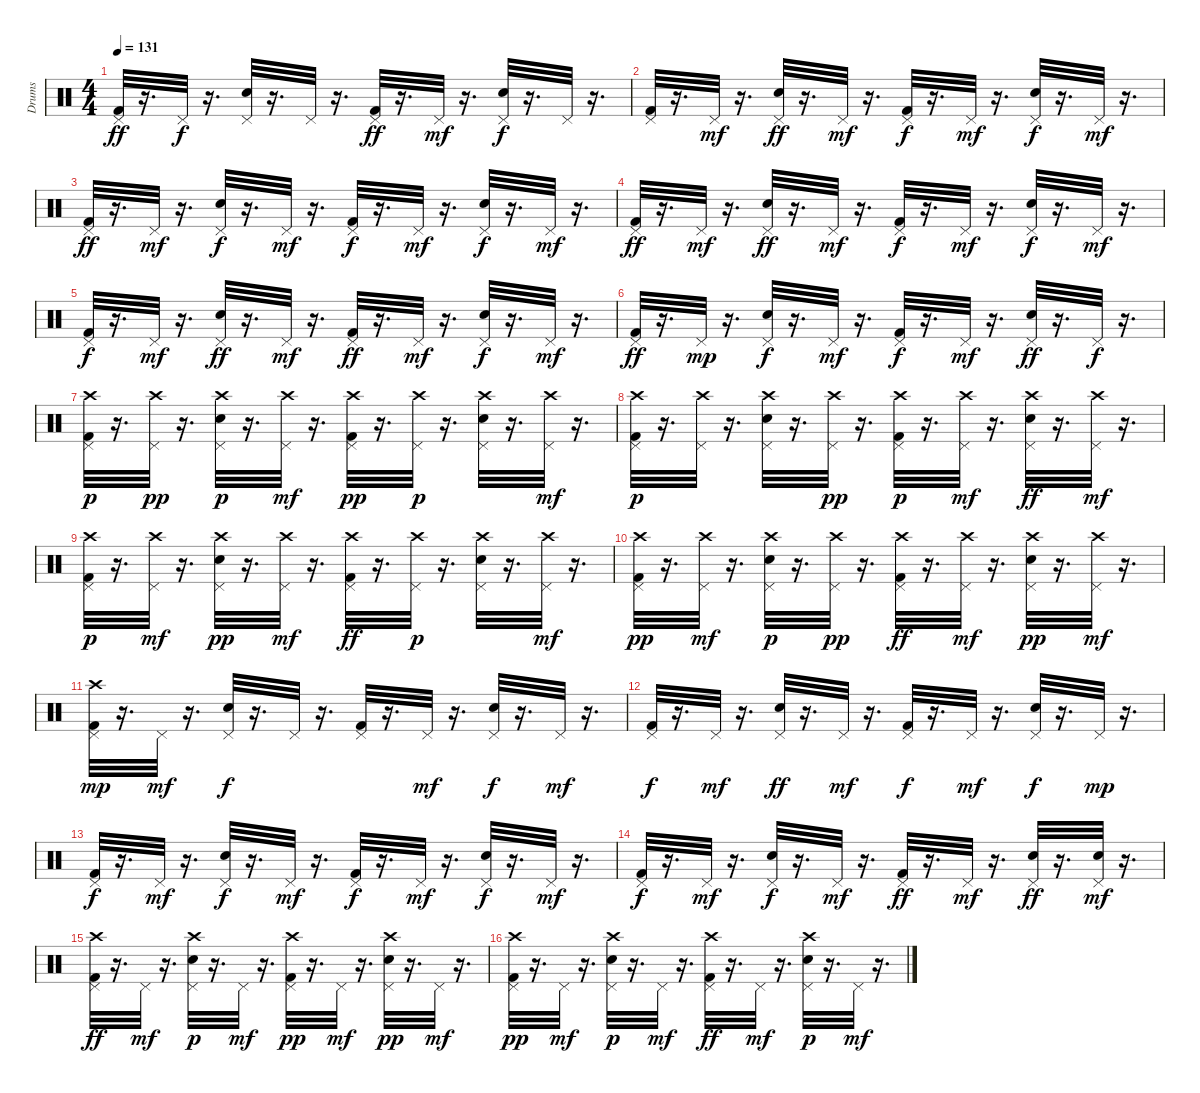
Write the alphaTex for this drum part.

\track ("Drums" "Drums") {instrument percussion}
\staff {score}
\articulation defaults
\ts (4 4)
\tempo 131
\clef neutral
\ks c
("Pedal Hi-Hat (hit)" "Kick (hit) 2").32{dy ff} r.16{d} "Pedal Hi-Hat (hit)".32{dy f} r.16{d} ("Pedal Hi-Hat (hit)" "Snare (hit) 2").32 r.16{d} "Pedal Hi-Hat (hit)".32 r.16{d} ("Kick (hit) 2" "Pedal Hi-Hat (hit)").32{dy ff} r.16{d} "Pedal Hi-Hat (hit)".32{dy mf} r.16{d} ("Pedal Hi-Hat (hit)" "Snare (hit) 2").32{dy f} r.16{d} "Pedal Hi-Hat (hit)".32 r.16{d} |
("Pedal Hi-Hat (hit)" "Kick (hit) 2").32 r.16{d} "Pedal Hi-Hat (hit)".32{dy mf} r.16{d} ("Pedal Hi-Hat (hit)" "Snare (hit) 2").32{dy ff} r.16{d} "Pedal Hi-Hat (hit)".32{dy mf} r.16{d} ("Kick (hit) 2" "Pedal Hi-Hat (hit)").32{dy f} r.16{d} "Pedal Hi-Hat (hit)".32{dy mf} r.16{d} ("Snare (hit) 2" "Pedal Hi-Hat (hit)").32{dy f} r.16{d} "Pedal Hi-Hat (hit)".32{dy mf} r.16{d} |
("Pedal Hi-Hat (hit)" "Kick (hit) 2").32{dy ff} r.16{d} "Pedal Hi-Hat (hit)".32{dy mf} r.16{d} ("Pedal Hi-Hat (hit)" "Snare (hit) 2").32{dy f} r.16{d} "Pedal Hi-Hat (hit)".32{dy mf} r.16{d} ("Pedal Hi-Hat (hit)" "Kick (hit) 2").32{dy f} r.16{d} "Pedal Hi-Hat (hit)".32{dy mf} r.16{d} ("Snare (hit) 2" "Pedal Hi-Hat (hit)").32{dy f} r.16{d} "Pedal Hi-Hat (hit)".32{dy mf} r.16{d} |
("Kick (hit) 2" "Pedal Hi-Hat (hit)").32{dy ff} r.16{d} "Pedal Hi-Hat (hit)".32{dy mf} r.16{d} ("Pedal Hi-Hat (hit)" "Snare (hit) 2").32{dy ff} r.16{d} "Pedal Hi-Hat (hit)".32{dy mf} r.16{d} ("Pedal Hi-Hat (hit)" "Kick (hit) 2").32{dy f} r.16{d} "Pedal Hi-Hat (hit)".32{dy mf} r.16{d} ("Snare (hit) 2" "Pedal Hi-Hat (hit)").32{dy f} r.16{d} "Pedal Hi-Hat (hit)".32{dy mf} r.16{d} |
("Pedal Hi-Hat (hit)" "Kick (hit) 2").32{dy f} r.16{d} "Pedal Hi-Hat (hit)".32{dy mf} r.16{d} ("Pedal Hi-Hat (hit)" "Snare (hit) 2").32{dy ff} r.16{d} "Pedal Hi-Hat (hit)".32{dy mf} r.16{d} ("Kick (hit) 2" "Pedal Hi-Hat (hit)").32{dy ff} r.16{d} "Pedal Hi-Hat (hit)".32{dy mf} r.16{d} ("Snare (hit) 2" "Pedal Hi-Hat (hit)").32{dy f} r.16{d} "Pedal Hi-Hat (hit)".32{dy mf} r.16{d} |
("Pedal Hi-Hat (hit)" "Kick (hit) 2").32{dy ff} r.16{d} "Pedal Hi-Hat (hit)".32{dy mp} r.16{d} ("Pedal Hi-Hat (hit)" "Snare (hit) 2").32{dy f} r.16{d} "Pedal Hi-Hat (hit)".32{dy mf} r.16{d} ("Pedal Hi-Hat (hit)" "Kick (hit) 2").32{dy f} r.16{d} "Pedal Hi-Hat (hit)".32{dy mf} r.16{d} ("Pedal Hi-Hat (hit)" "Snare (hit) 2").32{dy ff} r.16{d} "Pedal Hi-Hat (hit)".32{dy f} r.16{d} |
("Kick (hit) 2" "Pedal Hi-Hat (hit)" "Crash high (hit)").32{dy p} r.16{d} ("Pedal Hi-Hat (hit)" "Crash high (hit)").32{dy pp} r.16{d} ("Crash high (hit)" "Pedal Hi-Hat (hit)" "Snare (hit) 2").32{dy p} r.16{d} ("Crash high (hit)" "Pedal Hi-Hat (hit)").32{dy mf} r.16{d} ("Crash high (hit)" "Pedal Hi-Hat (hit)" "Kick (hit) 2").32{dy pp} r.16{d} ("Pedal Hi-Hat (hit)" "Crash high (hit)").32{dy p} r.16{d} ("Snare (hit) 2" "Pedal Hi-Hat (hit)" "Crash high (hit)").32 r.16{d} ("Crash high (hit)" "Pedal Hi-Hat (hit)").32{dy mf} r.16{d} |
("Pedal Hi-Hat (hit)" "Kick (hit) 2" "Crash high (hit)").32{dy p} r.16{d} ("Pedal Hi-Hat (hit)" "Crash high (hit)").32 r.16{d} ("Pedal Hi-Hat (hit)" "Snare (hit) 2" "Crash high (hit)").32 r.16{d} ("Pedal Hi-Hat (hit)" "Crash high (hit)").32{dy pp} r.16{d} ("Crash high (hit)" "Pedal Hi-Hat (hit)" "Kick (hit) 2").32{dy p} r.16{d} ("Crash high (hit)" "Pedal Hi-Hat (hit)").32{dy mf} r.16{d} ("Crash high (hit)" "Pedal Hi-Hat (hit)" "Snare (hit) 2").32{dy ff} r.16{d} ("Crash high (hit)" "Pedal Hi-Hat (hit)").32{dy mf} r.16{d} |
("Kick (hit) 2" "Crash high (hit)" "Pedal Hi-Hat (hit)").32{dy p} r.16{d} ("Crash high (hit)" "Pedal Hi-Hat (hit)").32{dy mf} r.16{d} ("Pedal Hi-Hat (hit)" "Snare (hit) 2" "Crash high (hit)").32{dy pp} r.16{d} ("Crash high (hit)" "Pedal Hi-Hat (hit)").32{dy mf} r.16{d} ("Crash high (hit)" "Kick (hit) 2" "Pedal Hi-Hat (hit)").32{dy ff} r.16{d} ("Pedal Hi-Hat (hit)" "Crash high (hit)").32{dy p} r.16{d} ("Pedal Hi-Hat (hit)" "Snare (hit) 2" "Crash high (hit)").32 r.16{d} ("Crash high (hit)" "Pedal Hi-Hat (hit)").32{dy mf} r.16{d} |
("Pedal Hi-Hat (hit)" "Kick (hit) 2" "Crash high (hit)").32{dy pp} r.16{d} ("Crash high (hit)" "Pedal Hi-Hat (hit)").32{dy mf} r.16{d} ("Snare (hit) 2" "Pedal Hi-Hat (hit)" "Crash high (hit)").32{dy p} r.16{d} ("Pedal Hi-Hat (hit)" "Crash high (hit)").32{dy pp} r.16{d} ("Pedal Hi-Hat (hit)" "Crash high (hit)" "Kick (hit) 2").32{dy ff} r.16{d} ("Crash high (hit)" "Pedal Hi-Hat (hit)").32{dy mf} r.16{d} ("Pedal Hi-Hat (hit)" "Crash high (hit)" "Snare (hit) 2").32{dy pp} r.16{d} ("Crash high (hit)" "Pedal Hi-Hat (hit)").32{dy mf} r.16{d} |
("Kick (hit) 2" "Pedal Hi-Hat (hit)" "Crash high (hit)").32{dy mp} r.16{d} "Pedal Hi-Hat (hit)".32{dy mf} r.16{d} ("Snare (hit) 2" "Pedal Hi-Hat (hit)").32{dy f} r.16{d} "Pedal Hi-Hat (hit)".32 r.16{d} ("Kick (hit) 2" "Pedal Hi-Hat (hit)").32 r.16{d} "Pedal Hi-Hat (hit)".32{dy mf} r.16{d} ("Pedal Hi-Hat (hit)" "Snare (hit) 2").32{dy f} r.16{d} "Pedal Hi-Hat (hit)".32{dy mf} r.16{d} |
("Pedal Hi-Hat (hit)" "Kick (hit) 2").32{dy f} r.16{d} "Pedal Hi-Hat (hit)".32{dy mf} r.16{d} ("Snare (hit) 2" "Pedal Hi-Hat (hit)").32{dy ff} r.16{d} "Pedal Hi-Hat (hit)".32{dy mf} r.16{d} ("Kick (hit) 2" "Pedal Hi-Hat (hit)").32{dy f} r.16{d} "Pedal Hi-Hat (hit)".32{dy mf} r.16{d} ("Snare (hit) 2" "Pedal Hi-Hat (hit)").32{dy f} r.16{d} "Pedal Hi-Hat (hit)".32{dy mp} r.16{d} |
("Pedal Hi-Hat (hit)" "Kick (hit) 2").32{dy f} r.16{d} "Pedal Hi-Hat (hit)".32{dy mf} r.16{d} ("Pedal Hi-Hat (hit)" "Snare (hit) 2").32{dy f} r.16{d} "Pedal Hi-Hat (hit)".32{dy mf} r.16{d} ("Kick (hit) 2" "Pedal Hi-Hat (hit)").32{dy f} r.16{d} "Pedal Hi-Hat (hit)".32{dy mf} r.16{d} ("Pedal Hi-Hat (hit)" "Snare (hit) 2").32{dy f} r.16{d} "Pedal Hi-Hat (hit)".32{dy mf} r.16{d} |
("Kick (hit) 2" "Pedal Hi-Hat (hit)").32{dy f} r.16{d} "Pedal Hi-Hat (hit)".32{dy mf} r.16{d} ("Pedal Hi-Hat (hit)" "Snare (hit) 2").32{dy f} r.16{d} "Pedal Hi-Hat (hit)".32{dy mf} r.16{d} ("Kick (hit) 2" "Pedal Hi-Hat (hit)").32{dy ff} r.16{d} "Pedal Hi-Hat (hit)".32{dy mf} r.16{d} ("Pedal Hi-Hat (hit)" "Snare (hit) 2").32{dy ff} r.16{d} ("Snare (hit) 2" "Pedal Hi-Hat (hit)").32{dy mf} r.16{d} |
("Crash high (hit)" "Kick (hit) 2" "Pedal Hi-Hat (hit)").32{dy ff} r.16{d} "Pedal Hi-Hat (hit)".32{dy mf} r.16{d} ("Crash high (hit)" "Pedal Hi-Hat (hit)" "Snare (hit) 2").32{dy p} r.16{d} "Pedal Hi-Hat (hit)".32{dy mf} r.16{d} ("Pedal Hi-Hat (hit)" "Crash high (hit)" "Kick (hit) 2").32{dy pp} r.16{d} "Pedal Hi-Hat (hit)".32{dy mf} r.16{d} ("Snare (hit) 2" "Pedal Hi-Hat (hit)" "Crash high (hit)").32{dy pp} r.16{d} "Pedal Hi-Hat (hit)".32{dy mf} r.16{d} |
("Kick (hit) 2" "Crash high (hit)" "Pedal Hi-Hat (hit)").32{dy pp} r.16{d} "Pedal Hi-Hat (hit)".32{dy mf} r.16{d} ("Snare (hit) 2" "Pedal Hi-Hat (hit)" "Crash high (hit)").32{dy p} r.16{d} "Pedal Hi-Hat (hit)".32{dy mf} r.16{d} ("Crash high (hit)" "Pedal Hi-Hat (hit)" "Kick (hit) 2").32{dy ff} r.16{d} "Pedal Hi-Hat (hit)".32{dy mf} r.16{d} ("Snare (hit) 2" "Crash high (hit)" "Pedal Hi-Hat (hit)").32{dy p} r.16{d} "Pedal Hi-Hat (hit)".32{dy mf} r.16{d}
